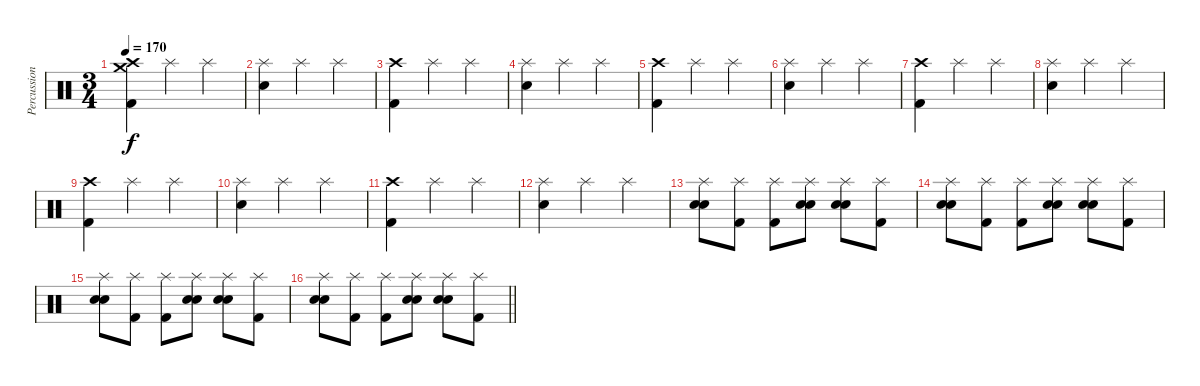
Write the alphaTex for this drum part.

\track ("Percussion" "Percussion") {instrument percussion}
\staff {score}
\articulation defaults
\ts (3 4)
\tempo 170
\clef neutral
\ks c
("Crash high (hit)" "Crash medium (hit)" "Kick (hit) 2").4{dy f} "Splash (hit)".4 "Splash (hit)".4 |
("Splash (hit)" "Electric Snare (hit)").4 "Splash (hit)".4 "Splash (hit)".4 |
("Crash high (hit)" "Kick (hit) 2").4 "Splash (hit)".4 "Splash (hit)".4 |
("Splash (hit)" "Electric Snare (hit)").4 "Splash (hit)".4 "Splash (hit)".4 |
("Crash high (hit)" "Kick (hit) 2").4 "Splash (hit)".4 "Splash (hit)".4 |
("Splash (hit)" "Electric Snare (hit)").4 "Splash (hit)".4 "Splash (hit)".4 |
("Crash high (hit)" "Kick (hit) 2").4 "Splash (hit)".4 "Splash (hit)".4 |
("Splash (hit)" "Electric Snare (hit)").4 "Splash (hit)".4 "Splash (hit)".4 |
("Crash high (hit)" "Kick (hit) 2").4 "Splash (hit)".4 "Splash (hit)".4 |
("Splash (hit)" "Electric Snare (hit)").4 "Splash (hit)".4 "Splash (hit)".4 |
("Crash high (hit)" "Kick (hit) 2").4 "Splash (hit)".4 "Splash (hit)".4 |
("Splash (hit)" "Electric Snare (hit)").4 "Splash (hit)".4 "Splash (hit)".4 |
("Splash (hit)" "Electric Snare (hit)" "Electric Snare (hit)").8 ("Splash (hit)" "Kick (hit) 2").8 ("Splash (hit)" "Kick (hit) 2").8 ("Splash (hit)" "Electric Snare (hit)" "Electric Snare (hit)").8 ("Splash (hit)" "Electric Snare (hit)" "Electric Snare (hit)").8 ("Splash (hit)" "Kick (hit) 2").8 |
("Splash (hit)" "Electric Snare (hit)" "Electric Snare (hit)").8 ("Splash (hit)" "Kick (hit) 2").8 ("Splash (hit)" "Kick (hit) 2").8 ("Splash (hit)" "Electric Snare (hit)" "Electric Snare (hit)").8 ("Splash (hit)" "Electric Snare (hit)" "Electric Snare (hit)").8 ("Splash (hit)" "Kick (hit) 2").8 |
("Splash (hit)" "Electric Snare (hit)" "Electric Snare (hit)").8 ("Splash (hit)" "Kick (hit) 2").8 ("Splash (hit)" "Kick (hit) 2").8 ("Splash (hit)" "Electric Snare (hit)" "Electric Snare (hit)").8 ("Splash (hit)" "Electric Snare (hit)" "Electric Snare (hit)").8 ("Splash (hit)" "Kick (hit) 2").8 |
\barLineRight lightlight
("Splash (hit)" "Electric Snare (hit)" "Electric Snare (hit)").8 ("Splash (hit)" "Kick (hit) 2").8 ("Splash (hit)" "Kick (hit) 2").8 ("Splash (hit)" "Electric Snare (hit)" "Electric Snare (hit)").8 ("Splash (hit)" "Electric Snare (hit)" "Electric Snare (hit)").8 ("Splash (hit)" "Kick (hit) 2").8
